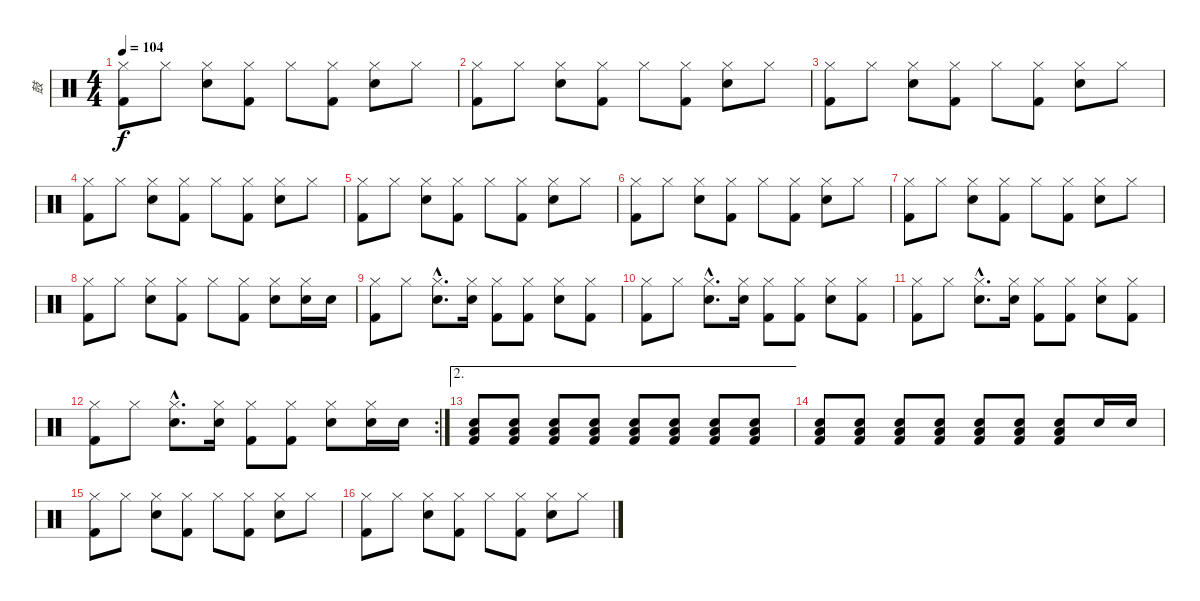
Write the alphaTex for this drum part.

\track ("鼓" "鼓") {instrument percussion}
\staff {score}
\articulation defaults
\ts (4 4)
\tempo 104
\clef neutral
\ks c
("Hi-Hat (closed)" "Kick (hit) 2").8{dy f} "Hi-Hat (closed)".8 ("Hi-Hat (closed)" "Snare (hit) 2").8 ("Hi-Hat (closed)" "Kick (hit) 2").8 "Hi-Hat (closed)".8 ("Hi-Hat (closed)" "Kick (hit) 2").8 ("Hi-Hat (closed)" "Snare (hit) 2").8 "Hi-Hat (closed)".8 |
("Hi-Hat (closed)" "Kick (hit) 2").8 "Hi-Hat (closed)".8 ("Hi-Hat (closed)" "Snare (hit) 2").8 ("Hi-Hat (closed)" "Kick (hit) 2").8 "Hi-Hat (closed)".8 ("Hi-Hat (closed)" "Kick (hit) 2").8 ("Hi-Hat (closed)" "Snare (hit) 2").8 "Hi-Hat (closed)".8 |
("Hi-Hat (closed)" "Kick (hit) 2").8 "Hi-Hat (closed)".8 ("Hi-Hat (closed)" "Snare (hit) 2").8 ("Hi-Hat (closed)" "Kick (hit) 2").8 "Hi-Hat (closed)".8 ("Hi-Hat (closed)" "Kick (hit) 2").8 ("Hi-Hat (closed)" "Snare (hit) 2").8 "Hi-Hat (closed)".8 |
("Hi-Hat (closed)" "Kick (hit) 2").8 "Hi-Hat (closed)".8 ("Hi-Hat (closed)" "Snare (hit) 2").8 ("Hi-Hat (closed)" "Kick (hit) 2").8 "Hi-Hat (closed)".8 ("Hi-Hat (closed)" "Kick (hit) 2").8 ("Hi-Hat (closed)" "Snare (hit) 2").8 "Hi-Hat (closed)".8 |
("Hi-Hat (closed)" "Kick (hit) 2").8 "Hi-Hat (closed)".8 ("Hi-Hat (closed)" "Snare (hit) 2").8 ("Hi-Hat (closed)" "Kick (hit) 2").8 "Hi-Hat (closed)".8 ("Hi-Hat (closed)" "Kick (hit) 2").8 ("Hi-Hat (closed)" "Snare (hit) 2").8 "Hi-Hat (closed)".8 |
("Hi-Hat (closed)" "Kick (hit) 2").8 "Hi-Hat (closed)".8 ("Hi-Hat (closed)" "Snare (hit) 2").8 ("Hi-Hat (closed)" "Kick (hit) 2").8 "Hi-Hat (closed)".8 ("Hi-Hat (closed)" "Kick (hit) 2").8 ("Hi-Hat (closed)" "Snare (hit) 2").8 "Hi-Hat (closed)".8 |
("Hi-Hat (closed)" "Kick (hit) 2").8 "Hi-Hat (closed)".8 ("Hi-Hat (closed)" "Snare (hit) 2").8 ("Hi-Hat (closed)" "Kick (hit) 2").8 "Hi-Hat (closed)".8 ("Hi-Hat (closed)" "Kick (hit) 2").8 ("Hi-Hat (closed)" "Snare (hit) 2").8 "Hi-Hat (closed)".8 |
("Hi-Hat (closed)" "Kick (hit) 2").8 "Hi-Hat (closed)".8 ("Hi-Hat (closed)" "Snare (hit) 2").8 ("Hi-Hat (closed)" "Kick (hit) 2").8 "Hi-Hat (closed)".8 ("Hi-Hat (closed)" "Kick (hit) 2").8 ("Hi-Hat (closed)" "Snare (hit) 2").8 ("Hi-Hat (closed)" "Snare (hit) 2").16 "Snare (hit) 2".16 |
("Hi-Hat (closed)" "Kick (hit) 2").8 "Hi-Hat (closed)".8 ("Hi-Hat (closed)"{hac} "Snare (hit) 2"{hac}).8{d} ("Hi-Hat (closed)" "Snare (hit) 2").16 ("Hi-Hat (closed)" "Kick (hit) 2").8 ("Hi-Hat (closed)" "Kick (hit) 2").8 ("Hi-Hat (closed)" "Snare (hit) 2").8 ("Hi-Hat (closed)" "Kick (hit) 2").8 |
("Hi-Hat (closed)" "Kick (hit) 2").8 "Hi-Hat (closed)".8 ("Hi-Hat (closed)"{hac} "Snare (hit) 2"{hac}).8{d} ("Hi-Hat (closed)" "Snare (hit) 2").16 ("Hi-Hat (closed)" "Kick (hit) 2").8 ("Hi-Hat (closed)" "Kick (hit) 2").8 ("Hi-Hat (closed)" "Snare (hit) 2").8 ("Hi-Hat (closed)" "Kick (hit) 2").8 |
("Hi-Hat (closed)" "Kick (hit) 2").8 "Hi-Hat (closed)".8 ("Hi-Hat (closed)"{hac} "Snare (hit) 2"{hac}).8{d} ("Hi-Hat (closed)" "Snare (hit) 2").16 ("Hi-Hat (closed)" "Kick (hit) 2").8 ("Hi-Hat (closed)" "Kick (hit) 2").8 ("Hi-Hat (closed)" "Snare (hit) 2").8 ("Hi-Hat (closed)" "Kick (hit) 2").8 |
\rc 2
("Hi-Hat (closed)" "Kick (hit) 2").8 "Hi-Hat (closed)".8 ("Hi-Hat (closed)"{hac} "Snare (hit) 2"{hac}).8{d} ("Hi-Hat (closed)" "Snare (hit) 2").16 ("Hi-Hat (closed)" "Kick (hit) 2").8 ("Hi-Hat (closed)" "Kick (hit) 2").8 ("Hi-Hat (closed)" "Snare (hit) 2").8 ("Hi-Hat (closed)" "Snare (hit) 2").16 "Snare (hit) 2".16 |
\ae 2
("Snare (hit) 2" "Low Tom (hit)" "Kick (hit) 2").8 ("Snare (hit) 2" "Low Tom (hit)" "Kick (hit) 2").8 ("Snare (hit) 2" "Low Tom (hit)" "Kick (hit) 2").8 ("Snare (hit) 2" "Low Tom (hit)" "Kick (hit) 2").8 ("Snare (hit) 2" "Low Tom (hit)" "Kick (hit) 2").8 ("Snare (hit) 2" "Low Tom (hit)" "Kick (hit) 2").8 ("Snare (hit) 2" "Low Tom (hit)" "Kick (hit) 2").8 ("Snare (hit) 2" "Low Tom (hit)" "Kick (hit) 2").8 |
("Snare (hit) 2" "Low Tom (hit)" "Kick (hit) 2").8 ("Snare (hit) 2" "Low Tom (hit)" "Kick (hit) 2").8 ("Snare (hit) 2" "Low Tom (hit)" "Kick (hit) 2").8 ("Snare (hit) 2" "Low Tom (hit)" "Kick (hit) 2").8 ("Snare (hit) 2" "Low Tom (hit)" "Kick (hit) 2").8 ("Snare (hit) 2" "Low Tom (hit)" "Kick (hit) 2").8 ("Snare (hit) 2" "Low Tom (hit)" "Kick (hit) 2").8 "Snare (hit) 2".16 "Snare (hit) 2".16 |
("Hi-Hat (closed)" "Kick (hit) 2").8 "Hi-Hat (closed)".8 ("Hi-Hat (closed)" "Snare (hit) 2").8 ("Hi-Hat (closed)" "Kick (hit) 2").8 "Hi-Hat (closed)".8 ("Hi-Hat (closed)" "Kick (hit) 2").8 ("Hi-Hat (closed)" "Snare (hit) 2").8 "Hi-Hat (closed)".8 |
("Hi-Hat (closed)" "Kick (hit) 2").8 "Hi-Hat (closed)".8 ("Hi-Hat (closed)" "Snare (hit) 2").8 ("Hi-Hat (closed)" "Kick (hit) 2").8 "Hi-Hat (closed)".8 ("Hi-Hat (closed)" "Kick (hit) 2").8 ("Hi-Hat (closed)" "Snare (hit) 2").8 "Hi-Hat (closed)".8
